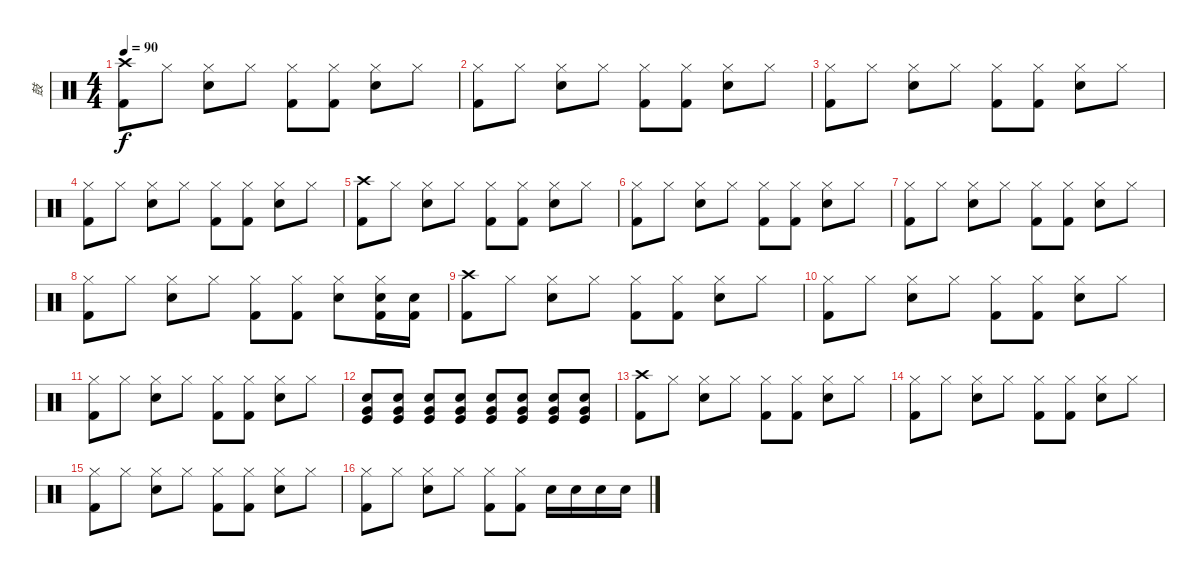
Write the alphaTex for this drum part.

\track ("鼓" "鼓") {instrument percussion}
\staff {score}
\articulation defaults
\ts (4 4)
\tempo 90
\clef neutral
\ks c
("Crash high (hit)" "Kick (hit) 2").8{dy f} "Hi-Hat (closed)".8 ("Hi-Hat (closed)" "Snare (hit) 2").8 "Hi-Hat (closed)".8 ("Hi-Hat (closed)" "Kick (hit) 2").8 ("Hi-Hat (closed)" "Kick (hit) 2").8 ("Hi-Hat (closed)" "Snare (hit) 2").8 "Hi-Hat (closed)".8 |
("Hi-Hat (closed)" "Kick (hit) 2").8 "Hi-Hat (closed)".8 ("Hi-Hat (closed)" "Snare (hit) 2").8 "Hi-Hat (closed)".8 ("Hi-Hat (closed)" "Kick (hit) 2").8 ("Hi-Hat (closed)" "Kick (hit) 2").8 ("Hi-Hat (closed)" "Snare (hit) 2").8 "Hi-Hat (closed)".8 |
("Hi-Hat (closed)" "Kick (hit) 2").8 "Hi-Hat (closed)".8 ("Hi-Hat (closed)" "Snare (hit) 2").8 "Hi-Hat (closed)".8 ("Hi-Hat (closed)" "Kick (hit) 2").8 ("Hi-Hat (closed)" "Kick (hit) 2").8 ("Hi-Hat (closed)" "Snare (hit) 2").8 "Hi-Hat (closed)".8 |
("Hi-Hat (closed)" "Kick (hit) 2").8 "Hi-Hat (closed)".8 ("Hi-Hat (closed)" "Snare (hit) 2").8 "Hi-Hat (closed)".8 ("Hi-Hat (closed)" "Kick (hit) 2").8 ("Hi-Hat (closed)" "Kick (hit) 2").8 ("Hi-Hat (closed)" "Snare (hit) 2").8 "Hi-Hat (closed)".8 |
("Crash high (hit)" "Kick (hit) 2").8 "Hi-Hat (closed)".8 ("Hi-Hat (closed)" "Snare (hit) 2").8 "Hi-Hat (closed)".8 ("Hi-Hat (closed)" "Kick (hit) 2").8 ("Hi-Hat (closed)" "Kick (hit) 2").8 ("Hi-Hat (closed)" "Snare (hit) 2").8 "Hi-Hat (closed)".8 |
("Hi-Hat (closed)" "Kick (hit) 2").8 "Hi-Hat (closed)".8 ("Hi-Hat (closed)" "Snare (hit) 2").8 "Hi-Hat (closed)".8 ("Hi-Hat (closed)" "Kick (hit) 2").8 ("Hi-Hat (closed)" "Kick (hit) 2").8 ("Hi-Hat (closed)" "Snare (hit) 2").8 "Hi-Hat (closed)".8 |
("Hi-Hat (closed)" "Kick (hit) 2").8 "Hi-Hat (closed)".8 ("Hi-Hat (closed)" "Snare (hit) 2").8 "Hi-Hat (closed)".8 ("Hi-Hat (closed)" "Kick (hit) 2").8 ("Hi-Hat (closed)" "Kick (hit) 2").8 ("Hi-Hat (closed)" "Snare (hit) 2").8 "Hi-Hat (closed)".8 |
("Hi-Hat (closed)" "Kick (hit) 2").8 "Hi-Hat (closed)".8 ("Hi-Hat (closed)" "Snare (hit) 2").8 "Hi-Hat (closed)".8 ("Hi-Hat (closed)" "Kick (hit) 2").8 ("Hi-Hat (closed)" "Kick (hit) 2").8 ("Hi-Hat (closed)" "Snare (hit) 2").8 ("Hi-Hat (closed)" "Snare (hit) 2" "Kick (hit) 2").16 ("Snare (hit) 2" "Kick (hit) 2").16 |
("Crash high (hit)" "Kick (hit) 2").8 "Hi-Hat (closed)".8 ("Hi-Hat (closed)" "Snare (hit) 2").8 "Hi-Hat (closed)".8 ("Hi-Hat (closed)" "Kick (hit) 2").8 ("Hi-Hat (closed)" "Kick (hit) 2").8 ("Hi-Hat (closed)" "Snare (hit) 2").8 "Hi-Hat (closed)".8 |
("Hi-Hat (closed)" "Kick (hit) 2").8 "Hi-Hat (closed)".8 ("Hi-Hat (closed)" "Snare (hit) 2").8 "Hi-Hat (closed)".8 ("Hi-Hat (closed)" "Kick (hit) 2").8 ("Hi-Hat (closed)" "Kick (hit) 2").8 ("Hi-Hat (closed)" "Snare (hit) 2").8 "Hi-Hat (closed)".8 |
("Hi-Hat (closed)" "Kick (hit) 2").8 "Hi-Hat (closed)".8 ("Hi-Hat (closed)" "Snare (hit) 2").8 "Hi-Hat (closed)".8 ("Hi-Hat (closed)" "Kick (hit) 2").8 ("Hi-Hat (closed)" "Kick (hit) 2").8 ("Hi-Hat (closed)" "Snare (hit) 2").8 "Hi-Hat (closed)".8 |
("Snare (hit) 2" "Very Low Tom (hit)" "Kick (hit)").8 ("Snare (hit) 2" "Very Low Tom (hit)" "Kick (hit)").8 ("Snare (hit) 2" "Very Low Tom (hit)" "Kick (hit)").8 ("Snare (hit) 2" "Very Low Tom (hit)" "Kick (hit)").8 ("Snare (hit) 2" "Very Low Tom (hit)" "Kick (hit)").8 ("Snare (hit) 2" "Very Low Tom (hit)" "Kick (hit)").8 ("Snare (hit) 2" "Very Low Tom (hit)" "Kick (hit)").8 ("Snare (hit) 2" "Very Low Tom (hit)" "Kick (hit)").8 |
("Crash high (hit)" "Kick (hit) 2").8 "Hi-Hat (closed)".8 ("Hi-Hat (closed)" "Snare (hit) 2").8 "Hi-Hat (closed)".8 ("Hi-Hat (closed)" "Kick (hit) 2").8 ("Hi-Hat (closed)" "Kick (hit) 2").8 ("Hi-Hat (closed)" "Snare (hit) 2").8 "Hi-Hat (closed)".8 |
("Hi-Hat (closed)" "Kick (hit) 2").8 "Hi-Hat (closed)".8 ("Hi-Hat (closed)" "Snare (hit) 2").8 "Hi-Hat (closed)".8 ("Hi-Hat (closed)" "Kick (hit) 2").8 ("Hi-Hat (closed)" "Kick (hit) 2").8 ("Hi-Hat (closed)" "Snare (hit) 2").8 "Hi-Hat (closed)".8 |
("Hi-Hat (closed)" "Kick (hit) 2").8 "Hi-Hat (closed)".8 ("Hi-Hat (closed)" "Snare (hit) 2").8 "Hi-Hat (closed)".8 ("Hi-Hat (closed)" "Kick (hit) 2").8 ("Hi-Hat (closed)" "Kick (hit) 2").8 ("Hi-Hat (closed)" "Snare (hit) 2").8 "Hi-Hat (closed)".8 |
("Hi-Hat (closed)" "Kick (hit) 2").8 "Hi-Hat (closed)".8 ("Hi-Hat (closed)" "Snare (hit) 2").8 "Hi-Hat (closed)".8 ("Hi-Hat (closed)" "Kick (hit) 2").8 ("Hi-Hat (closed)" "Kick (hit) 2").8 "Snare (hit) 2".16 "Snare (hit) 2".16 "Snare (hit) 2".16 "Snare (hit) 2".16
